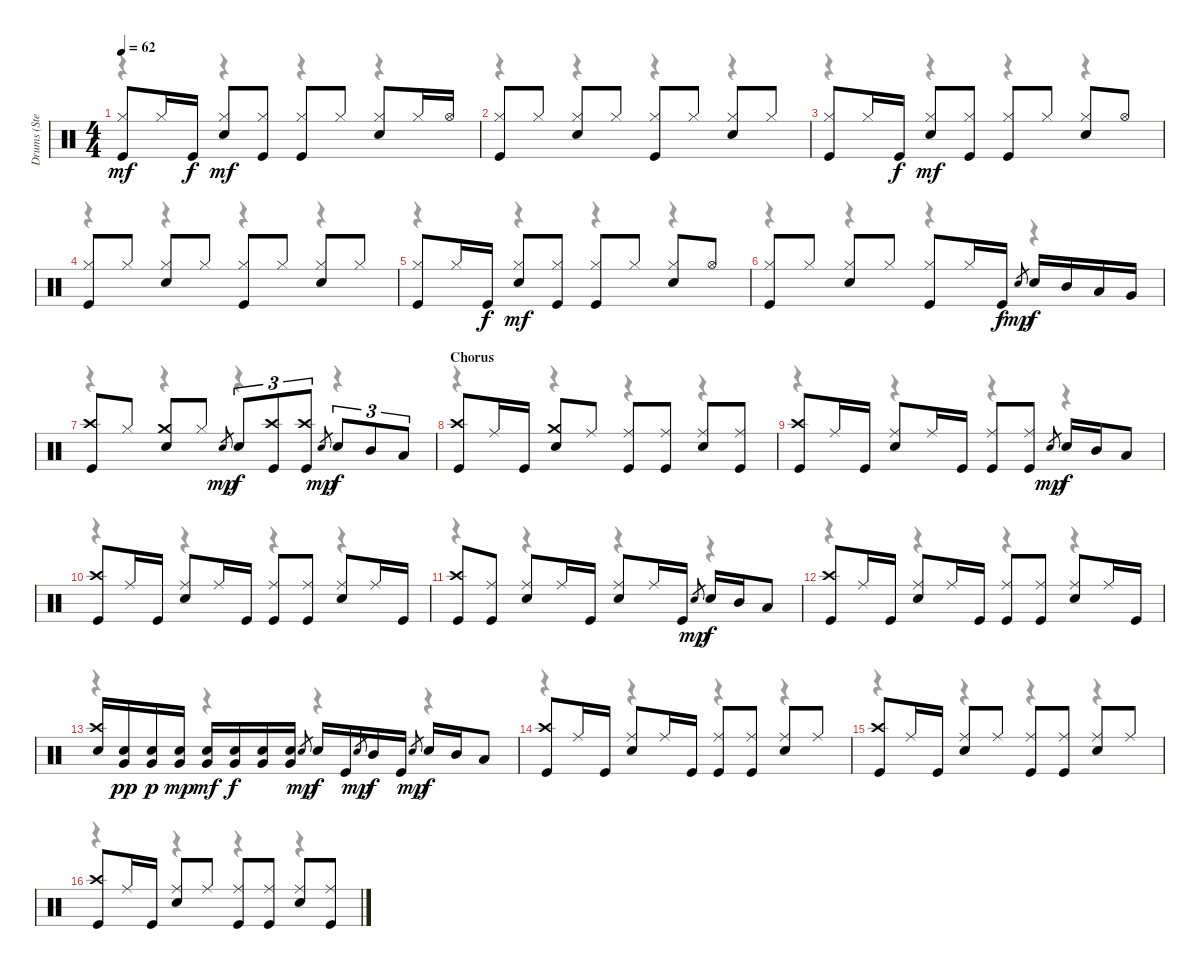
\track ("Drums (Steven)" "Drums (Ste") {instrument percussion}
\staff {score}
\articulation defaults
\voice
\ts (4 4)
\tempo 62
\clef neutral
\ks c
("Hi-Hat (closed)" "Kick (hit)").8{dy mf} "Hi-Hat (closed)".16 "Kick (hit)".16{dy f} ("Hi-Hat (closed)" "Snare (hit) 2").8{dy mf} ("Hi-Hat (closed)" "Kick (hit)").8 ("Hi-Hat (closed)" "Kick (hit)").8 "Hi-Hat (closed)".8 ("Hi-Hat (closed)" "Snare (hit) 2").8 "Hi-Hat (closed)".16 "Hi-Hat (open)".16 |
("Hi-Hat (closed)" "Kick (hit)").8 "Hi-Hat (closed)".8 ("Hi-Hat (closed)" "Snare (hit) 2").8 "Hi-Hat (closed)".8 ("Hi-Hat (closed)" "Kick (hit)").8 "Hi-Hat (closed)".8 ("Hi-Hat (closed)" "Snare (hit) 2").8 "Hi-Hat (closed)".8 |
("Hi-Hat (closed)" "Kick (hit)").8 "Hi-Hat (closed)".16 "Kick (hit)".16{dy f} ("Hi-Hat (closed)" "Snare (hit) 2").8{dy mf} ("Hi-Hat (closed)" "Kick (hit)").8 ("Hi-Hat (closed)" "Kick (hit)").8 "Hi-Hat (closed)".8 ("Hi-Hat (closed)" "Snare (hit) 2").8 "Hi-Hat (open)".8 |
("Hi-Hat (closed)" "Kick (hit)").8 "Hi-Hat (closed)".8 ("Hi-Hat (closed)" "Snare (hit) 2").8 "Hi-Hat (closed)".8 ("Hi-Hat (closed)" "Kick (hit)").8 "Hi-Hat (closed)".8 ("Hi-Hat (closed)" "Snare (hit) 2").8 "Hi-Hat (closed)".8 |
("Hi-Hat (closed)" "Kick (hit)").8 "Hi-Hat (closed)".16 "Kick (hit)".16{dy f} ("Hi-Hat (closed)" "Snare (hit) 2").8{dy mf} ("Hi-Hat (closed)" "Kick (hit)").8 ("Hi-Hat (closed)" "Kick (hit)").8 "Hi-Hat (closed)".8 ("Hi-Hat (closed)" "Snare (hit) 2").8 "Hi-Hat (open)".8 |
("Hi-Hat (closed)" "Kick (hit)").8 "Hi-Hat (closed)".8 ("Hi-Hat (closed)" "Snare (hit) 2").8 "Hi-Hat (closed)".8 ("Hi-Hat (closed)" "Kick (hit)").8 "Hi-Hat (closed)".16 "Kick (hit)".16{dy f} "Snare (hit)".8{gr dy mp} "Snare (hit) 2".16{dy f} "Mid Tom (hit)".16 "Low Tom (hit)".16 "Very Low Tom (hit)".16 |
("Crash high (hit)" "Kick (hit)").8 "Hi-Hat (closed)".8 ("Crash medium (hit)" "Snare (hit) 2").8 "Hi-Hat (closed)".8 "Snare (hit)".8{gr dy mp} "Snare (hit) 2".8{tu (3 2) dy f} ("Crash high (hit)" "Kick (hit)").8{tu (3 2)} ("Crash high (hit)" "Kick (hit)").8{tu (3 2)} "Snare (hit)".8{gr dy mp} "Snare (hit) 2".8{tu (3 2) dy f} "Mid Tom (hit)".8{tu (3 2)} "Low Tom (hit)".8{tu (3 2)} |
\section ("" "Chorus")
("Crash high (hit)" "Kick (hit)").8 "Ride (middle)".16 "Kick (hit)".16 ("Crash medium (hit)" "Snare (hit) 2").8 "Ride (middle)".8 ("Ride (middle)" "Kick (hit)").8 ("Ride (middle)" "Kick (hit)").8 ("Ride (middle)" "Snare (hit) 2").8 ("Ride (middle)" "Kick (hit)").8 |
("Crash high (hit)" "Kick (hit)").8 "Ride (middle)".16 "Kick (hit)".16 ("Ride (middle)" "Snare (hit) 2").8 "Ride (middle)".16 "Kick (hit)".16 ("Ride (middle)" "Kick (hit)").8 ("Ride (middle)" "Kick (hit)").8 "Snare (hit)".8{gr dy mp} "Snare (hit) 2".16{dy f} "Mid Tom (hit)".16 "Low Tom (hit)".8 |
("Crash high (hit)" "Kick (hit)").8 "Ride (middle)".16 "Kick (hit)".16 ("Ride (middle)" "Snare (hit) 2").8 "Ride (middle)".16 "Kick (hit)".16 ("Ride (middle)" "Kick (hit)").8 ("Ride (middle)" "Kick (hit)").8 ("Ride (middle)" "Snare (hit) 2").8 "Ride (middle)".16 "Kick (hit)".16 |
("Crash high (hit)" "Kick (hit)").8 ("Ride (middle)" "Kick (hit)").8 ("Ride (middle)" "Snare (hit) 2").8 "Ride (middle)".16 "Kick (hit)".16 ("Ride (middle)" "Snare (hit) 2").8 "Ride (middle)".16 "Kick (hit)".16 "Snare (hit)".8{gr dy mp} "Snare (hit) 2".16{dy f} "Mid Tom (hit)".16 "Low Tom (hit)".8 |
("Crash high (hit)" "Kick (hit)").8 "Ride (middle)".16 "Kick (hit)".16 ("Ride (middle)" "Snare (hit) 2").8 "Ride (middle)".16 "Kick (hit)".16 ("Ride (middle)" "Kick (hit)").8 ("Ride (middle)" "Kick (hit)").8 ("Ride (middle)" "Snare (hit) 2").8 "Ride (middle)".16 "Kick (hit)".16 |
("Crash high (hit)" "Snare (hit) 2").16 ("Snare (hit) 2" "Very Low Tom (hit)").16{dy pp} ("Snare (hit) 2" "Very Low Tom (hit)").16{dy p} ("Snare (hit) 2" "Very Low Tom (hit)").16{dy mp} ("Snare (hit) 2" "Very Low Tom (hit)").16{dy mf} ("Snare (hit) 2" "Very Low Tom (hit)").16{dy f} ("Snare (hit) 2" "Very Low Tom (hit)").16 ("Snare (hit) 2" "Very Low Tom (hit)").16 "Snare (hit)".8{gr dy mp} "Snare (hit) 2".16{dy f} "Kick (hit)".16 "Snare (hit)".8{gr dy mp} "Mid Tom (hit)".16{dy f} "Kick (hit)".16 "Snare (hit)".8{gr dy mp} "Snare (hit) 2".16{dy f} "Mid Tom (hit)".16 "Low Tom (hit)".8 |
("Crash high (hit)" "Kick (hit)").8 "Ride (middle)".16 "Kick (hit)".16 ("Ride (middle)" "Snare (hit) 2").8 "Ride (middle)".16 "Kick (hit)".16 ("Ride (middle)" "Kick (hit)").8 ("Ride (middle)" "Kick (hit)").8 ("Ride (middle)" "Snare (hit) 2").8 "Ride (middle)".8 |
("Crash high (hit)" "Kick (hit)").8 "Ride (middle)".16 "Kick (hit)".16 ("Ride (middle)" "Snare (hit) 2").8 "Ride (middle)".8 ("Ride (middle)" "Kick (hit)").8 ("Ride (middle)" "Kick (hit)").8 ("Ride (middle)" "Snare (hit) 2").8 "Ride (middle)".8 |
("Crash high (hit)" "Kick (hit)").8 "Ride (middle)".16 "Kick (hit)".16 ("Ride (middle)" "Snare (hit) 2").8 "Ride (middle)".8 ("Ride (middle)" "Kick (hit)").8 ("Ride (middle)" "Kick (hit)").8 ("Ride (middle)" "Snare (hit) 2").8 ("Ride (middle)" "Kick (hit)").8
\voice
\clef neutral
\ottava regular
\simile none
\ks c
r.4{dy f} r.4 r.4 r.4 |
r.4 r.4 r.4 r.4 |
r.4 r.4 r.4 r.4 |
r.4 r.4 r.4 r.4 |
r.4 r.4 r.4 r.4 |
r.4 r.4 r.4 r.4 |
r.4 r.4 r.4 r.4 |
r.4 r.4 r.4 r.4 |
r.4 r.4 r.4 r.4 |
r.4 r.4 r.4 r.4 |
r.4 r.4 r.4 r.4 |
r.4 r.4 r.4 r.4 |
r.4 r.4 r.4 r.4 |
r.4 r.4 r.4 r.4 |
r.4 r.4 r.4 r.4 |
r.4 r.4 r.4 r.4
